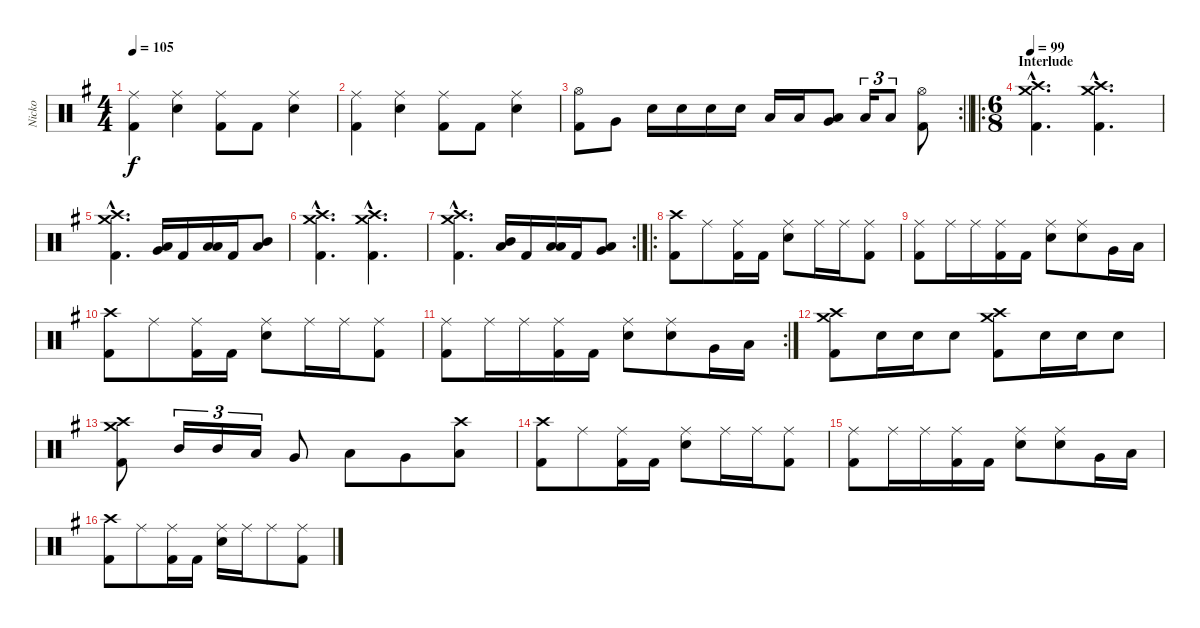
\track ("Nicko" "Nicko") {instrument percussion}
\staff {score}
\articulation defaults
\ts (4 4)
\tempo 105
\clef neutral
\ks eminor
("Ride (middle)" "Kick (hit) 2").4{dy f} ("Ride (middle)" "Snare (hit) 2").4 ("Ride (middle)" "Kick (hit) 2").8 "Kick (hit) 2".8 ("Ride (middle)" "Snare (hit) 2").4 |
("Ride (middle)" "Kick (hit) 2").4 ("Ride (middle)" "Snare (hit) 2").4 ("Ride (middle)" "Kick (hit) 2").8 "Kick (hit) 2".8 ("Ride (middle)" "Snare (hit) 2").4 |
\rc 2
\barLineRight lightlight
("Hi-Hat (open)" "Kick (hit) 2").8 "Very Low Tom (hit)".8 "Snare (hit) 2".16 "Snare (hit) 2".16 "Snare (hit) 2".16 "Snare (hit) 2".16 "Low Tom (hit)".16 "Low Tom (hit)".16 ("Very Low Tom (hit)" "Low Floor Tom (hit)").8 "Low Tom (hit)".16{tu (3 2)} "Low Tom (hit)".8{tu (3 2)} ("Hi-Hat (open)" "Kick (hit) 2").8 |
\ro
\ts (6 8)
\section ("" "Interlude")
\tempo 99
("Crash medium (hit)"{hac} "Crash high (hit)"{hac} "Kick (hit) 2"{hac}).4{d} ("Crash medium (hit)"{hac} "Crash high (hit)"{hac} "Kick (hit) 2"{hac}).4{d} |
("Crash medium (hit)"{hac} "Crash high (hit)"{hac} "Kick (hit) 2"{hac}).4{d} ("Low Floor Tom (hit)" "Very Low Tom (hit)").16 "Kick (hit) 2".16 ("Low Floor Tom (hit)" "Low Tom (hit)").16 "Kick (hit) 2".16 ("Low Floor Tom (hit)" "Mid Tom (hit)").8 |
("Crash medium (hit)"{hac} "Crash high (hit)"{hac} "Kick (hit) 2"{hac}).4{d} ("Crash medium (hit)"{hac} "Crash high (hit)"{hac} "Kick (hit) 2"{hac}).4{d} |
\rc 2
("Crash medium (hit)"{hac} "Crash high (hit)"{hac} "Kick (hit) 2"{hac}).4{d} ("Low Floor Tom (hit)" "Mid Tom (hit)").16 "Kick (hit) 2".16 ("Low Floor Tom (hit)" "Low Tom (hit)").16 "Kick (hit) 2".16 ("Low Floor Tom (hit)" "Very Low Tom (hit)").8 |
\ro
("Crash high (hit)" "Kick (hit) 2").8 "Ride (middle)".8 ("Ride (middle)" "Kick (hit) 2").16 "Kick (hit) 2".16 ("Ride (middle)" "Snare (hit) 2").8 "Ride (middle)".16 "Ride (middle)".16 ("Ride (middle)" "Kick (hit) 2").8 |
("Ride (middle)" "Kick (hit) 2").8 "Ride (middle)".16 "Ride (middle)".16 ("Ride (middle)" "Kick (hit) 2").16 "Kick (hit) 2".16 ("Ride (middle)" "Snare (hit) 2").8 ("Ride (middle)" "Snare (hit) 2").8 "Very Low Tom (hit)".16 "Low Floor Tom (hit)".16 |
("Crash high (hit)" "Kick (hit) 2").8 "Ride (middle)".8 ("Ride (middle)" "Kick (hit) 2").16 "Kick (hit) 2".16 ("Ride (middle)" "Snare (hit) 2").8 "Ride (middle)".16 "Ride (middle)".16 ("Ride (middle)" "Kick (hit) 2").8 |
\rc 2
("Ride (middle)" "Kick (hit) 2").8 "Ride (middle)".16 "Ride (middle)".16 ("Ride (middle)" "Kick (hit) 2").16 "Kick (hit) 2".16 ("Ride (middle)" "Snare (hit) 2").8 ("Ride (middle)" "Snare (hit) 2").8 "Very Low Tom (hit)".16 "Low Floor Tom (hit)".16 |
("Crash medium (hit)" "Crash high (hit)" "Kick (hit) 2").8 "Snare (hit) 2".16 "Snare (hit) 2".16 "Snare (hit) 2".8 ("Crash medium (hit)" "Crash high (hit)" "Kick (hit) 2").8 "Snare (hit) 2".16 "Snare (hit) 2".16 "Snare (hit) 2".8 |
("Crash medium (hit)" "Crash high (hit)" "Kick (hit) 2").8 "Mid Tom (hit)".16{tu (3 2)} "Mid Tom (hit)".16{tu (3 2)} "Low Tom (hit)".16{tu (3 2)} "Very Low Tom (hit)".8 "Low Tom (hit)".8 "Very Low Tom (hit)".8 ("Low Floor Tom (hit)" "Crash high (hit)").8 |
("Crash high (hit)" "Kick (hit) 2").8 "Ride (middle)".8 ("Ride (middle)" "Kick (hit) 2").16 "Kick (hit) 2".16 ("Ride (middle)" "Snare (hit) 2").8 "Ride (middle)".16 "Ride (middle)".16 ("Ride (middle)" "Kick (hit) 2").8 |
("Ride (middle)" "Kick (hit) 2").8 "Ride (middle)".16 "Ride (middle)".16 ("Ride (middle)" "Kick (hit) 2").16 "Kick (hit) 2".16 ("Ride (middle)" "Snare (hit) 2").8 ("Ride (middle)" "Snare (hit) 2").8 "Very Low Tom (hit)".16 "Low Floor Tom (hit)".16 |
("Crash high (hit)" "Kick (hit) 2").8 "Ride (middle)".8 ("Ride (middle)" "Kick (hit) 2").16 "Kick (hit) 2".16 ("Ride (middle)" "Snare (hit) 2").16 "Ride (middle)".16 "Ride (middle)".8 ("Ride (middle)" "Kick (hit) 2").8
